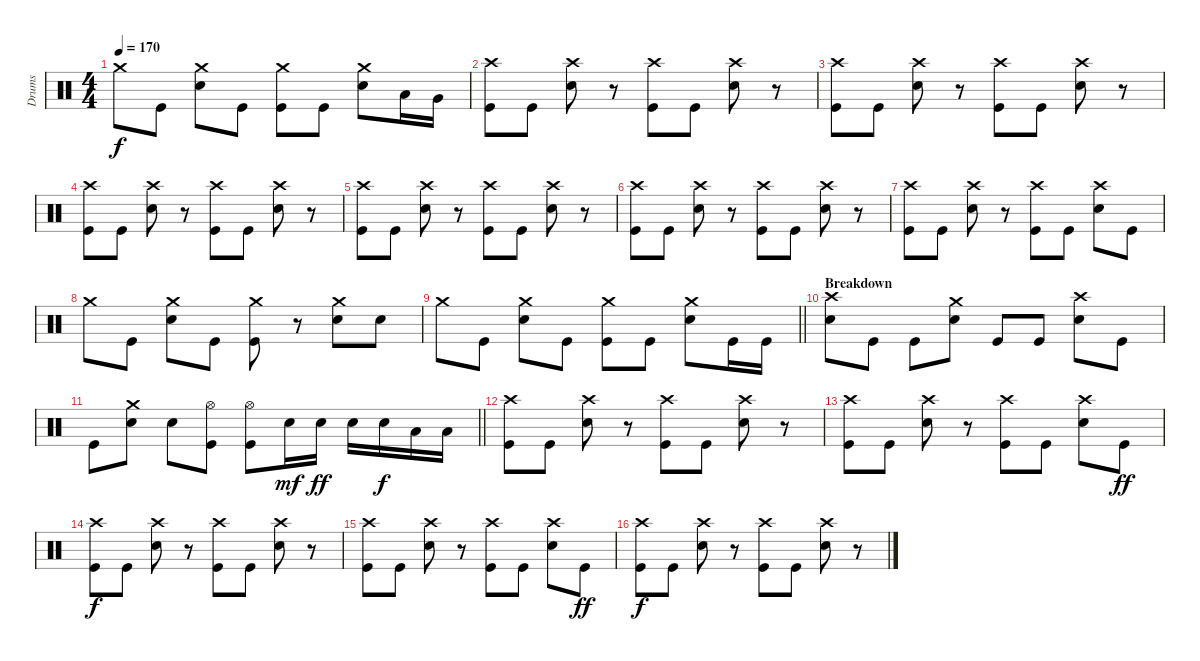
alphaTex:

\track ("Drums" "Drums") {instrument percussion}
\staff {score}
\articulation defaults
\ts (4 4)
\tempo 170
\clef neutral
\ks c "Crash medium (hit)".8{dy f} "Kick (hit)".8
("Crash medium (hit)" "Snare (hit) 2").8 "Kick (hit)".8 ("Crash medium (hit)" "Kick (hit)").8 "Kick (hit)".8 ("Crash medium (hit)" "Snare (hit) 2").8 "Low Tom (hit)".16 "Very Low Tom (hit)".16 |
("Crash high (hit)" "Kick (hit)").8 "Kick (hit)".8 ("Crash high (hit)" "Snare (hit) 2").8 r.8 ("Crash high (hit)" "Kick (hit)").8 "Kick (hit)".8 ("Crash high (hit)" "Snare (hit) 2").8 r.8 |
("Crash high (hit)" "Kick (hit)").8 "Kick (hit)".8 ("Crash high (hit)" "Snare (hit) 2").8 r.8 ("Crash high (hit)" "Kick (hit)").8 "Kick (hit)".8 ("Crash high (hit)" "Snare (hit) 2").8 r.8 |
("Crash high (hit)" "Kick (hit)").8 "Kick (hit)".8 ("Crash high (hit)" "Snare (hit) 2").8 r.8 ("Crash high (hit)" "Kick (hit)").8 "Kick (hit)".8 ("Crash high (hit)" "Snare (hit) 2").8 r.8 |
("Crash high (hit)" "Kick (hit)").8 "Kick (hit)".8 ("Crash high (hit)" "Snare (hit) 2").8 r.8 ("Crash high (hit)" "Kick (hit)").8 "Kick (hit)".8 ("Crash high (hit)" "Snare (hit) 2").8 r.8 |
("Crash high (hit)" "Kick (hit)").8 "Kick (hit)".8 ("Crash high (hit)" "Snare (hit) 2").8 r.8 ("Crash high (hit)" "Kick (hit)").8 "Kick (hit)".8 ("Crash high (hit)" "Snare (hit) 2").8 r.8 |
("Crash high (hit)" "Kick (hit)").8 "Kick (hit)".8 ("Crash high (hit)" "Snare (hit) 2").8 r.8 ("Crash high (hit)" "Kick (hit)").8 "Kick (hit)".8 ("Crash high (hit)" "Snare (hit) 2").8 "Kick (hit)".8 |
"Crash medium (hit)".8 "Kick (hit)".8 ("Crash medium (hit)" "Snare (hit) 2").8 "Kick (hit)".8 ("Crash medium (hit)" "Kick (hit)").8 r.8 ("Crash medium (hit)" "Snare (hit) 2").8 "Snare (hit) 2".8 |
\barLineRight lightlight "Crash medium (hit)".8 "Kick (hit)".8
("Crash medium (hit)" "Snare (hit) 2").8 "Kick (hit)".8 ("Crash medium (hit)" "Kick (hit)").8 "Kick (hit)".8 ("Crash medium (hit)" "Snare (hit) 2").8 "Kick (hit)".16 "Kick (hit)".16 |
\section ("" "Breakdown")
("Crash high (hit)" "Snare (hit) 2").8 "Kick (hit)".8 "Kick (hit)".8 ("Crash medium (hit)" "Snare (hit) 2").8 "Kick (hit)".8 "Kick (hit)".8 ("Crash high (hit)" "Snare (hit) 2").8 "Kick (hit)".8 |
\barLineRight lightlight "Kick (hit)".8
("Crash medium (hit)" "Snare (hit) 2").8 "Snare (hit) 2".8 ("Hi-Hat (open)" "Kick (hit)").8 ("Hi-Hat (open)" "Kick (hit)").8 "Snare (hit) 2".16{dy mf} "Snare (hit) 2".16{dy ff} "Snare (hit) 2".16 "Snare (hit) 2".16{dy f} "Low Tom (hit)".16 "Low Tom (hit)".16 |
("Crash high (hit)" "Kick (hit)").8 "Kick (hit)".8 ("Crash high (hit)" "Snare (hit) 2").8 r.8 ("Crash high (hit)" "Kick (hit)").8 "Kick (hit)".8 ("Crash high (hit)" "Snare (hit) 2").8 r.8 |
("Crash high (hit)" "Kick (hit)").8 "Kick (hit)".8 ("Crash high (hit)" "Snare (hit) 2").8 r.8 ("Crash high (hit)" "Kick (hit)").8 "Kick (hit)".8 ("Crash high (hit)" "Snare (hit) 2").8 "Kick (hit)".8{dy ff} |
("Crash high (hit)" "Kick (hit)").8{dy f} "Kick (hit)".8 ("Crash high (hit)" "Snare (hit) 2").8 r.8 ("Crash high (hit)" "Kick (hit)").8 "Kick (hit)".8 ("Crash high (hit)" "Snare (hit) 2").8 r.8 |
("Crash high (hit)" "Kick (hit)").8 "Kick (hit)".8 ("Crash high (hit)" "Snare (hit) 2").8 r.8 ("Crash high (hit)" "Kick (hit)").8 "Kick (hit)".8 ("Crash high (hit)" "Snare (hit) 2").8 "Kick (hit)".8{dy ff} |
("Crash high (hit)" "Kick (hit)").8{dy f} "Kick (hit)".8 ("Crash high (hit)" "Snare (hit) 2").8 r.8 ("Crash high (hit)" "Kick (hit)").8 "Kick (hit)".8 ("Crash high (hit)" "Snare (hit) 2").8 r.8
